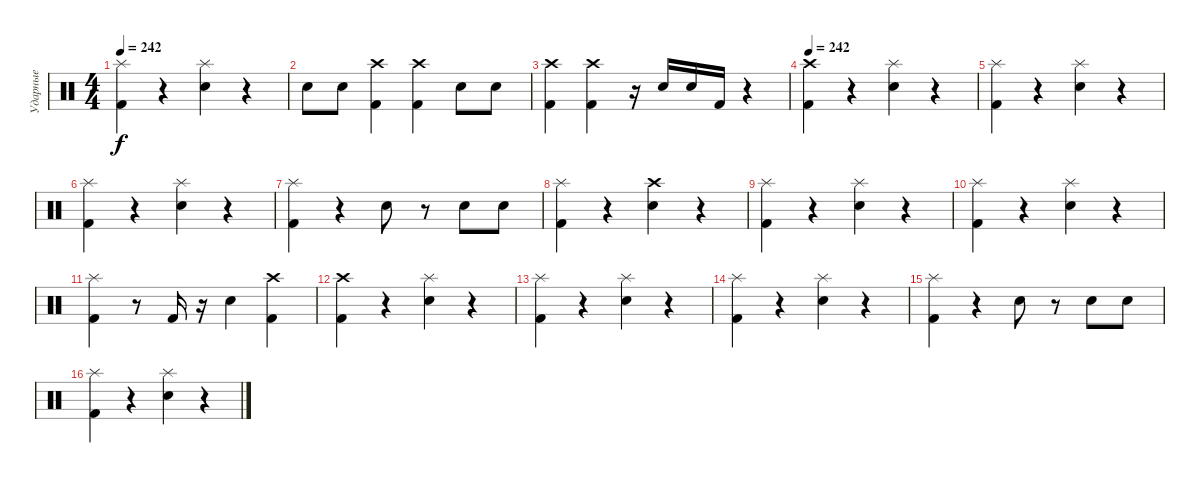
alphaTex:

\track ("Ударные" "Ударные") {instrument percussion}
\staff {score}
\articulation defaults
\ts (4 4)
\tempo 242
\clef neutral
\ks c
("Splash (hit)" "Kick (hit) 2").4{dy f} r.4 ("Splash (hit)" "Electric Snare (hit)").4 r.4 |
"Electric Snare (hit)".8 "Electric Snare (hit)".8 ("Crash high (hit)" "Kick (hit) 2").4 ("Crash high (hit)" "Kick (hit) 2").4 "Electric Snare (hit)".8 "Electric Snare (hit)".8 |
("Crash high (hit)" "Kick (hit) 2").4 ("Crash high (hit)" "Kick (hit) 2").4 r.16 "Electric Snare (hit)".16 "Electric Snare (hit)".16 "Kick (hit) 2".16 r.4 |
\tempo 242
("Crash high (hit)" "Kick (hit) 2").4 r.4 ("Splash (hit)" "Electric Snare (hit)").4 r.4 |
("Splash (hit)" "Kick (hit) 2").4 r.4 ("Splash (hit)" "Electric Snare (hit)").4 r.4 |
("Splash (hit)" "Kick (hit) 2").4 r.4 ("Splash (hit)" "Electric Snare (hit)").4 r.4 |
("Splash (hit)" "Kick (hit) 2").4 r.4 "Electric Snare (hit)".8 r.8 "Electric Snare (hit)".8 "Electric Snare (hit)".8 |
("Splash (hit)" "Kick (hit) 2").4 r.4 ("Crash high (hit)" "Electric Snare (hit)").4 r.4 |
("Splash (hit)" "Kick (hit) 2").4 r.4 ("Splash (hit)" "Electric Snare (hit)").4 r.4 |
("Splash (hit)" "Kick (hit) 2").4 r.4 ("Splash (hit)" "Electric Snare (hit)").4 r.4 |
("Splash (hit)" "Kick (hit) 2").4 r.8 "Kick (hit) 2".16 r.16 "Electric Snare (hit)".4 ("Crash high (hit)" "Kick (hit) 2").4 |
("Crash high (hit)" "Kick (hit) 2").4 r.4 ("Splash (hit)" "Electric Snare (hit)").4 r.4 |
("Splash (hit)" "Kick (hit) 2").4 r.4 ("Splash (hit)" "Electric Snare (hit)").4 r.4 |
("Splash (hit)" "Kick (hit) 2").4 r.4 ("Splash (hit)" "Electric Snare (hit)").4 r.4 |
("Splash (hit)" "Kick (hit) 2").4 r.4 "Electric Snare (hit)".8 r.8 "Electric Snare (hit)".8 "Electric Snare (hit)".8 |
("Splash (hit)" "Kick (hit) 2").4 r.4 ("Splash (hit)" "Electric Snare (hit)").4 r.4
